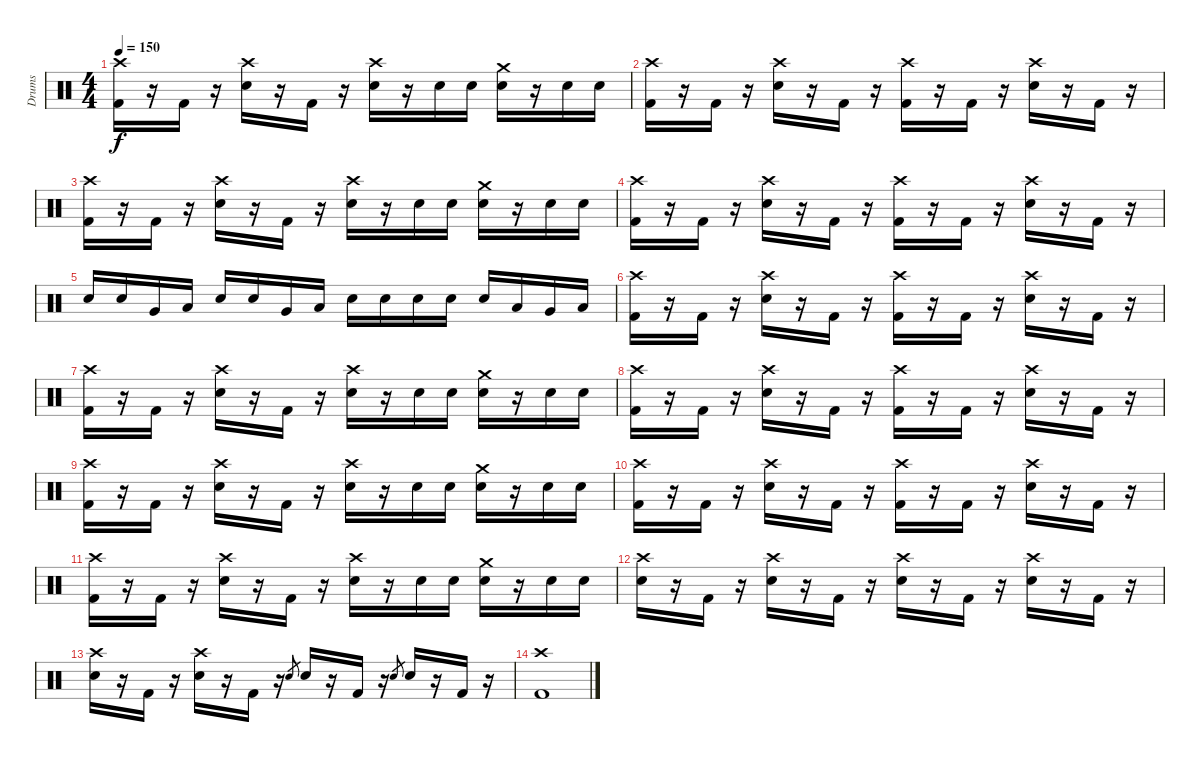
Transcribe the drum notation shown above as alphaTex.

\track ("Drums" "Drums") {instrument percussion}
\staff {score}
\articulation defaults
\ts (4 4)
\tempo 150
\clef neutral
\ks c
("Crash high (hit)" "Kick (hit) 2").16{dy f} r.16 "Kick (hit) 2".16 r.16 ("Crash high (hit)" "Snare (hit) 2").16 r.16 "Kick (hit) 2".16 r.16 ("Crash high (hit)" "Snare (hit) 2").16 r.16 "Snare (hit) 2".16 "Snare (hit) 2".16 ("Crash medium (hit)" "Snare (hit) 2").16 r.16 "Snare (hit) 2".16 "Snare (hit) 2".16 |
("Crash high (hit)" "Kick (hit) 2").16 r.16 "Kick (hit) 2".16 r.16 ("Crash high (hit)" "Snare (hit) 2").16 r.16 "Kick (hit) 2".16 r.16 ("Crash high (hit)" "Kick (hit) 2").16 r.16 "Kick (hit) 2".16 r.16 ("Crash high (hit)" "Snare (hit) 2").16 r.16 "Kick (hit) 2".16 r.16 |
("Crash high (hit)" "Kick (hit) 2").16 r.16 "Kick (hit) 2".16 r.16 ("Crash high (hit)" "Snare (hit) 2").16 r.16 "Kick (hit) 2".16 r.16 ("Crash high (hit)" "Snare (hit) 2").16 r.16 "Snare (hit) 2".16 "Snare (hit) 2".16 ("Crash medium (hit)" "Snare (hit) 2").16 r.16 "Snare (hit) 2".16 "Snare (hit) 2".16 |
("Crash high (hit)" "Kick (hit) 2").16 r.16 "Kick (hit) 2".16 r.16 ("Crash high (hit)" "Snare (hit) 2").16 r.16 "Kick (hit) 2".16 r.16 ("Crash high (hit)" "Kick (hit) 2").16 r.16 "Kick (hit) 2".16 r.16 ("Crash high (hit)" "Snare (hit) 2").16 r.16 "Kick (hit) 2".16 r.16 |
"Snare (hit) 2".16 "Snare (hit) 2".16 "Very Low Tom (hit)".16 "Low Floor Tom (hit)".16 "Snare (hit) 2".16 "Snare (hit) 2".16 "Very Low Tom (hit)".16 "Low Floor Tom (hit)".16 "Snare (hit) 2".16 "Snare (hit) 2".16 "Snare (hit) 2".16 "Snare (hit) 2".16 "Snare (hit) 2".16 "Low Tom (hit)".16 "Very Low Tom (hit)".16 "Low Floor Tom (hit)".16 |
("Crash high (hit)" "Kick (hit) 2").16 r.16 "Kick (hit) 2".16 r.16 ("Crash high (hit)" "Snare (hit) 2").16 r.16 "Kick (hit) 2".16 r.16 ("Crash high (hit)" "Kick (hit) 2").16 r.16 "Kick (hit) 2".16 r.16 ("Crash high (hit)" "Snare (hit) 2").16 r.16 "Kick (hit) 2".16 r.16 |
("Crash high (hit)" "Kick (hit) 2").16 r.16 "Kick (hit) 2".16 r.16 ("Crash high (hit)" "Snare (hit) 2").16 r.16 "Kick (hit) 2".16 r.16 ("Crash high (hit)" "Snare (hit) 2").16 r.16 "Snare (hit) 2".16 "Snare (hit) 2".16 ("Crash medium (hit)" "Snare (hit) 2").16 r.16 "Snare (hit) 2".16 "Snare (hit) 2".16 |
("Crash high (hit)" "Kick (hit) 2").16 r.16 "Kick (hit) 2".16 r.16 ("Crash high (hit)" "Snare (hit) 2").16 r.16 "Kick (hit) 2".16 r.16 ("Crash high (hit)" "Kick (hit) 2").16 r.16 "Kick (hit) 2".16 r.16 ("Crash high (hit)" "Snare (hit) 2").16 r.16 "Kick (hit) 2".16 r.16 |
("Crash high (hit)" "Kick (hit) 2").16 r.16 "Kick (hit) 2".16 r.16 ("Crash high (hit)" "Snare (hit) 2").16 r.16 "Kick (hit) 2".16 r.16 ("Crash high (hit)" "Snare (hit) 2").16 r.16 "Snare (hit) 2".16 "Snare (hit) 2".16 ("Crash medium (hit)" "Snare (hit) 2").16 r.16 "Snare (hit) 2".16 "Snare (hit) 2".16 |
("Crash high (hit)" "Kick (hit) 2").16 r.16 "Kick (hit) 2".16 r.16 ("Crash high (hit)" "Snare (hit) 2").16 r.16 "Kick (hit) 2".16 r.16 ("Crash high (hit)" "Kick (hit) 2").16 r.16 "Kick (hit) 2".16 r.16 ("Crash high (hit)" "Snare (hit) 2").16 r.16 "Kick (hit) 2".16 r.16 |
("Crash high (hit)" "Kick (hit) 2").16 r.16 "Kick (hit) 2".16 r.16 ("Crash high (hit)" "Snare (hit) 2").16 r.16 "Kick (hit) 2".16 r.16 ("Crash high (hit)" "Snare (hit) 2").16 r.16 "Snare (hit) 2".16 "Snare (hit) 2".16 ("Crash medium (hit)" "Snare (hit) 2").16 r.16 "Snare (hit) 2".16 "Snare (hit) 2".16 |
("Crash high (hit)" "Snare (hit) 2").16 r.16 "Kick (hit) 2".16 r.16 ("Crash high (hit)" "Snare (hit) 2").16 r.16 "Kick (hit) 2".16 r.16 ("Crash high (hit)" "Snare (hit) 2").16 r.16 "Kick (hit) 2".16 r.16 ("Crash high (hit)" "Snare (hit) 2").16 r.16 "Kick (hit) 2".16 r.16 |
("Crash high (hit)" "Snare (hit) 2").16 r.16 "Kick (hit) 2".16 r.16 ("Crash high (hit)" "Snare (hit) 2").16 r.16 "Kick (hit) 2".16 r.16 "Snare (hit) 2".8{gr} "Snare (hit) 2".16 r.16 "Kick (hit) 2".16 r.16 "Snare (hit) 2".8{gr} "Snare (hit) 2".16 r.16 "Kick (hit) 2".16 r.16 |
("Crash high (hit)" "Kick (hit) 2").1
